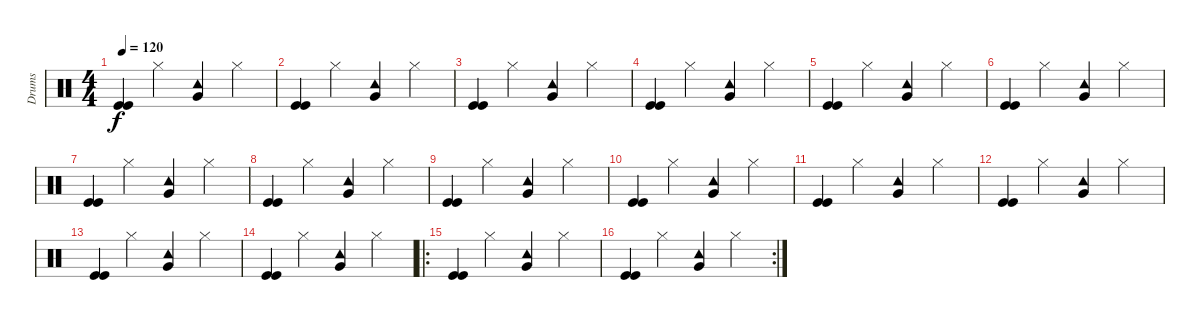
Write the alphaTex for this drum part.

\track ("Drums" "Drums") {instrument percussion}
\staff {score}
\articulation defaults
\ts (4 4)
\tempo 120
\clef neutral
\ks c
("Kick (hit)" "Kick (hit)").4{dy f} "Hi-Hat (closed)".4 ("Tambourine (hit)" "Very Low Tom (hit)").4 "Hi-Hat (closed)".4 |
("Kick (hit)" "Kick (hit)").4 "Hi-Hat (closed)".4 ("Tambourine (hit)" "Very Low Tom (hit)").4 "Hi-Hat (closed)".4 |
("Kick (hit)" "Kick (hit)").4 "Hi-Hat (closed)".4 ("Tambourine (hit)" "Very Low Tom (hit)").4 "Hi-Hat (closed)".4 |
("Kick (hit)" "Kick (hit)").4 "Hi-Hat (closed)".4 ("Tambourine (hit)" "Very Low Tom (hit)").4 "Hi-Hat (closed)".4 |
("Kick (hit)" "Kick (hit)").4 "Hi-Hat (closed)".4 ("Tambourine (hit)" "Very Low Tom (hit)").4 "Hi-Hat (closed)".4 |
("Kick (hit)" "Kick (hit)").4 "Hi-Hat (closed)".4 ("Tambourine (hit)" "Very Low Tom (hit)").4 "Hi-Hat (closed)".4 |
("Kick (hit)" "Kick (hit)").4 "Hi-Hat (closed)".4 ("Tambourine (hit)" "Very Low Tom (hit)").4 "Hi-Hat (closed)".4 |
("Kick (hit)" "Kick (hit)").4 "Hi-Hat (closed)".4 ("Tambourine (hit)" "Very Low Tom (hit)").4 "Hi-Hat (closed)".4 |
("Kick (hit)" "Kick (hit)").4 "Hi-Hat (closed)".4 ("Tambourine (hit)" "Very Low Tom (hit)").4 "Hi-Hat (closed)".4 |
("Kick (hit)" "Kick (hit)").4 "Hi-Hat (closed)".4 ("Tambourine (hit)" "Very Low Tom (hit)").4 "Hi-Hat (closed)".4 |
("Kick (hit)" "Kick (hit)").4 "Hi-Hat (closed)".4 ("Tambourine (hit)" "Very Low Tom (hit)").4 "Hi-Hat (closed)".4 |
("Kick (hit)" "Kick (hit)").4 "Hi-Hat (closed)".4 ("Tambourine (hit)" "Very Low Tom (hit)").4 "Hi-Hat (closed)".4 |
("Kick (hit)" "Kick (hit)").4 "Hi-Hat (closed)".4 ("Tambourine (hit)" "Very Low Tom (hit)").4 "Hi-Hat (closed)".4 |
("Kick (hit)" "Kick (hit)").4 "Hi-Hat (closed)".4 ("Tambourine (hit)" "Very Low Tom (hit)").4 "Hi-Hat (closed)".4 |
\ro
("Kick (hit)" "Kick (hit)").4 "Hi-Hat (closed)".4 ("Tambourine (hit)" "Very Low Tom (hit)").4 "Hi-Hat (closed)".4 |
\rc 2
("Kick (hit)" "Kick (hit)").4 "Hi-Hat (closed)".4 ("Tambourine (hit)" "Very Low Tom (hit)").4 "Hi-Hat (closed)".4
